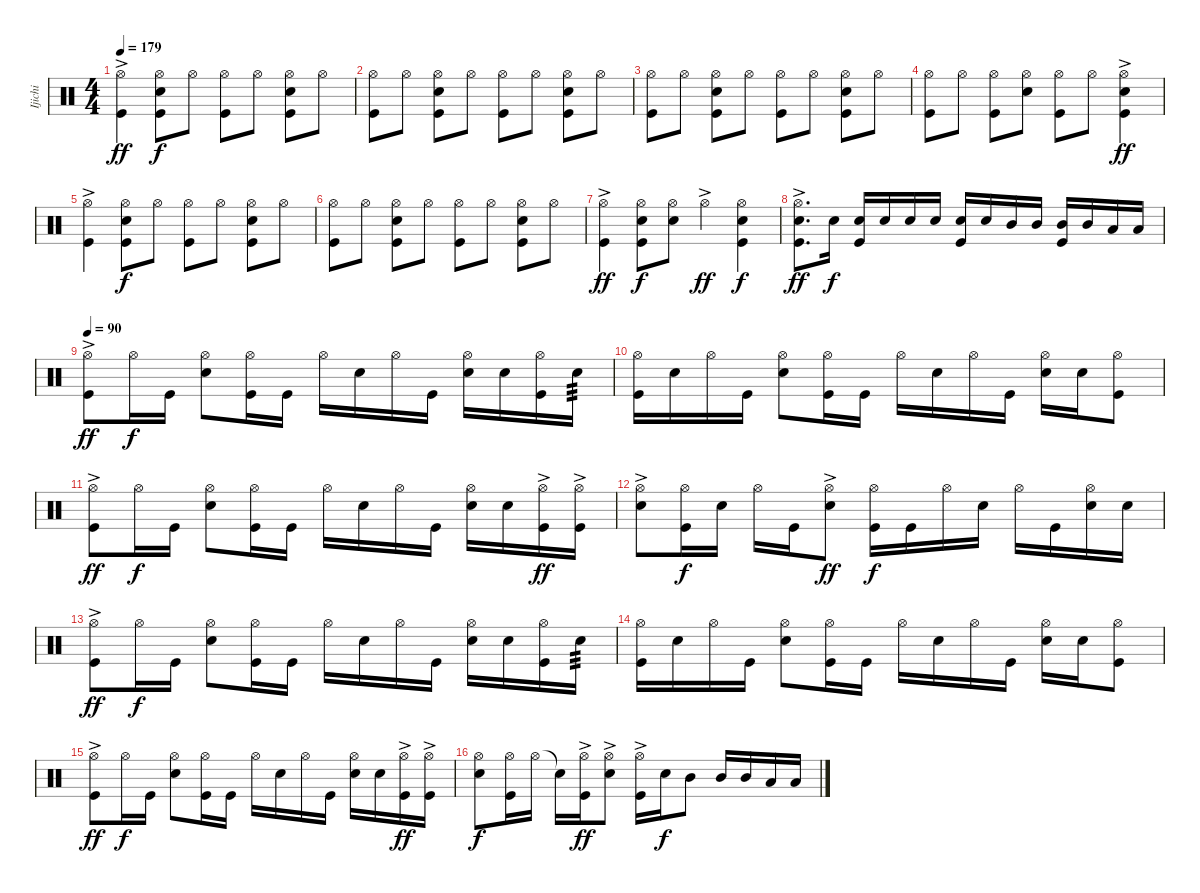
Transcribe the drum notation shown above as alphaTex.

\track ("Ijichi" "Ijichi") {instrument percussion}
\staff {score}
\articulation defaults
\ts (4 4)
\tempo 179
\clef neutral
\ks c
("Hi-Hat (open)"{ac} "Kick (hit)").4{dy ff} ("Hi-Hat (open)" "Snare (hit) 2" "Kick (hit)").8{dy f} "Hi-Hat (open)".8 ("Hi-Hat (open)" "Kick (hit)").8 "Hi-Hat (open)".8 ("Hi-Hat (open)" "Snare (hit) 2" "Kick (hit)").8 "Hi-Hat (open)".8 |
("Hi-Hat (open)" "Kick (hit)").8 "Hi-Hat (open)".8 ("Hi-Hat (open)" "Snare (hit) 2" "Kick (hit)").8 "Hi-Hat (open)".8 ("Hi-Hat (open)" "Kick (hit)").8 "Hi-Hat (open)".8 ("Hi-Hat (open)" "Snare (hit) 2" "Kick (hit)").8 "Hi-Hat (open)".8 |
("Hi-Hat (open)" "Kick (hit)").8 "Hi-Hat (open)".8 ("Hi-Hat (open)" "Snare (hit) 2" "Kick (hit)").8 "Hi-Hat (open)".8 ("Hi-Hat (open)" "Kick (hit)").8 "Hi-Hat (open)".8 ("Hi-Hat (open)" "Snare (hit) 2" "Kick (hit)").8 "Hi-Hat (open)".8 |
("Hi-Hat (open)" "Kick (hit)").8 "Hi-Hat (open)".8 ("Hi-Hat (open)" "Kick (hit)").8 ("Hi-Hat (open)" "Snare (hit) 2").8 ("Hi-Hat (open)" "Kick (hit)").8 "Hi-Hat (open)".8 ("Hi-Hat (open)"{ac} "Snare (hit) 2" "Kick (hit)").4{dy ff} |
("Hi-Hat (open)"{ac} "Kick (hit)").4 ("Hi-Hat (open)" "Snare (hit) 2" "Kick (hit)").8{dy f} "Hi-Hat (open)".8 ("Hi-Hat (open)" "Kick (hit)").8 "Hi-Hat (open)".8 ("Hi-Hat (open)" "Snare (hit) 2" "Kick (hit)").8 "Hi-Hat (open)".8 |
("Hi-Hat (open)" "Kick (hit)").8 "Hi-Hat (open)".8 ("Hi-Hat (open)" "Snare (hit) 2" "Kick (hit)").8 "Hi-Hat (open)".8 ("Hi-Hat (open)" "Kick (hit)").8 "Hi-Hat (open)".8 ("Hi-Hat (open)" "Snare (hit) 2" "Kick (hit)").8 "Hi-Hat (open)".8 |
("Hi-Hat (open)"{ac} "Kick (hit)").4{dy ff} ("Hi-Hat (open)" "Snare (hit) 2" "Kick (hit)").8{dy f} ("Hi-Hat (open)" "Snare (hit) 2").8 "Hi-Hat (open)"{ac}.4{dy ff} ("Hi-Hat (open)" "Snare (hit) 2" "Kick (hit)").4{dy f} |
("Hi-Hat (open)"{ac} "Snare (hit) 2" "Kick (hit)").8{d dy ff} "Snare (hit) 2".16{dy f} ("Snare (hit) 2" "Kick (hit)").16 "Snare (hit) 2".16 "Snare (hit) 2".16 "Snare (hit) 2".16 ("Snare (hit) 2" "Kick (hit)").16 "Snare (hit) 2".16 "Mid Tom (hit)".16 "Mid Tom (hit)".16 ("Mid Tom (hit)" "Kick (hit)").16 "Mid Tom (hit)".16 "Low Tom (hit)".16 "Low Tom (hit)".16 |
\tempo 90
("Hi-Hat (open)"{ac} "Kick (hit)").8{dy ff} "Hi-Hat (open)".16{dy f} "Kick (hit)".16 ("Hi-Hat (open)" "Snare (hit) 2").8 ("Hi-Hat (open)" "Kick (hit)").16 "Kick (hit)".16 "Hi-Hat (open)".16 "Snare (hit) 2".16 "Hi-Hat (open)".16 "Kick (hit)".16 ("Hi-Hat (open)" "Snare (hit) 2").16 "Snare (hit) 2".16 ("Hi-Hat (open)" "Kick (hit)").16 "Snare (hit) 2".16{tp 3} |
("Hi-Hat (open)" "Kick (hit)").16 "Snare (hit) 2".16 "Hi-Hat (open)".16 "Kick (hit)".16 ("Hi-Hat (open)" "Snare (hit) 2").8 ("Hi-Hat (open)" "Kick (hit)").16 "Kick (hit)".16 "Hi-Hat (open)".16 "Snare (hit) 2".16 "Hi-Hat (open)".16 "Kick (hit)".16 ("Hi-Hat (open)" "Snare (hit) 2").16 "Snare (hit) 2".16 ("Hi-Hat (open)" "Kick (hit)").8 |
("Hi-Hat (open)"{ac} "Kick (hit)").8{dy ff} "Hi-Hat (open)".16{dy f} "Kick (hit)".16 ("Hi-Hat (open)" "Snare (hit) 2").8 ("Hi-Hat (open)" "Kick (hit)").16 "Kick (hit)".16 "Hi-Hat (open)".16 "Snare (hit) 2".16 "Hi-Hat (open)".16 "Kick (hit)".16 ("Hi-Hat (open)" "Snare (hit) 2").16 "Snare (hit) 2".16 ("Hi-Hat (open)"{ac} "Kick (hit)").16{dy ff} ("Hi-Hat (open)"{ac} "Kick (hit)").16 |
("Hi-Hat (open)"{ac} "Snare (hit) 2").8 ("Hi-Hat (open)" "Kick (hit)").16{dy f} "Snare (hit) 2".16 "Hi-Hat (open)".16 "Kick (hit)".16 ("Hi-Hat (open)"{ac} "Snare (hit) 2").8{dy ff} ("Hi-Hat (open)" "Kick (hit)").16{dy f} "Kick (hit)".16 "Hi-Hat (open)".16 "Snare (hit) 2".16 "Hi-Hat (open)".16 "Kick (hit)".16 ("Hi-Hat (open)" "Snare (hit) 2").16 "Snare (hit) 2".16 |
("Hi-Hat (open)"{ac} "Kick (hit)").8{dy ff} "Hi-Hat (open)".16{dy f} "Kick (hit)".16 ("Hi-Hat (open)" "Snare (hit) 2").8 ("Hi-Hat (open)" "Kick (hit)").16 "Kick (hit)".16 "Hi-Hat (open)".16 "Snare (hit) 2".16 "Hi-Hat (open)".16 "Kick (hit)".16 ("Hi-Hat (open)" "Snare (hit) 2").16 "Snare (hit) 2".16 ("Hi-Hat (open)" "Kick (hit)").16 "Snare (hit) 2".16{tp 3} |
("Hi-Hat (open)" "Kick (hit)").16 "Snare (hit) 2".16 "Hi-Hat (open)".16 "Kick (hit)".16 ("Hi-Hat (open)" "Snare (hit) 2").8 ("Hi-Hat (open)" "Kick (hit)").16 "Kick (hit)".16 "Hi-Hat (open)".16 "Snare (hit) 2".16 "Hi-Hat (open)".16 "Kick (hit)".16 ("Hi-Hat (open)" "Snare (hit) 2").16 "Snare (hit) 2".16 ("Hi-Hat (open)" "Kick (hit)").8 |
("Hi-Hat (open)"{ac} "Kick (hit)").8{dy ff} "Hi-Hat (open)".16{dy f} "Kick (hit)".16 ("Hi-Hat (open)" "Snare (hit) 2").8 ("Hi-Hat (open)" "Kick (hit)").16 "Kick (hit)".16 "Hi-Hat (open)".16 "Snare (hit) 2".16 "Hi-Hat (open)".16 "Kick (hit)".16 ("Hi-Hat (open)" "Snare (hit) 2").16 "Snare (hit) 2".16 ("Hi-Hat (open)"{ac} "Kick (hit)").16{dy ff} ("Hi-Hat (open)"{ac} "Kick (hit)").16 |
("Hi-Hat (open)" "Snare (hit) 2").8{dy f} ("Hi-Hat (open)" "Kick (hit)").16 "Hi-Hat (open)".16 "Snare (hit)"{t}.16 ("Hi-Hat (open)"{ac} "Kick (hit)").16{dy ff} ("Hi-Hat (open)"{ac} "Snare (hit) 2").8 ("Hi-Hat (open)"{ac} "Kick (hit)").16 "Snare (hit) 2".16{dy f} "Mid Tom (hit)".8 "Mid Tom (hit)".16 "Mid Tom (hit)".16 "Low Tom (hit)".16 "Low Tom (hit)".16
